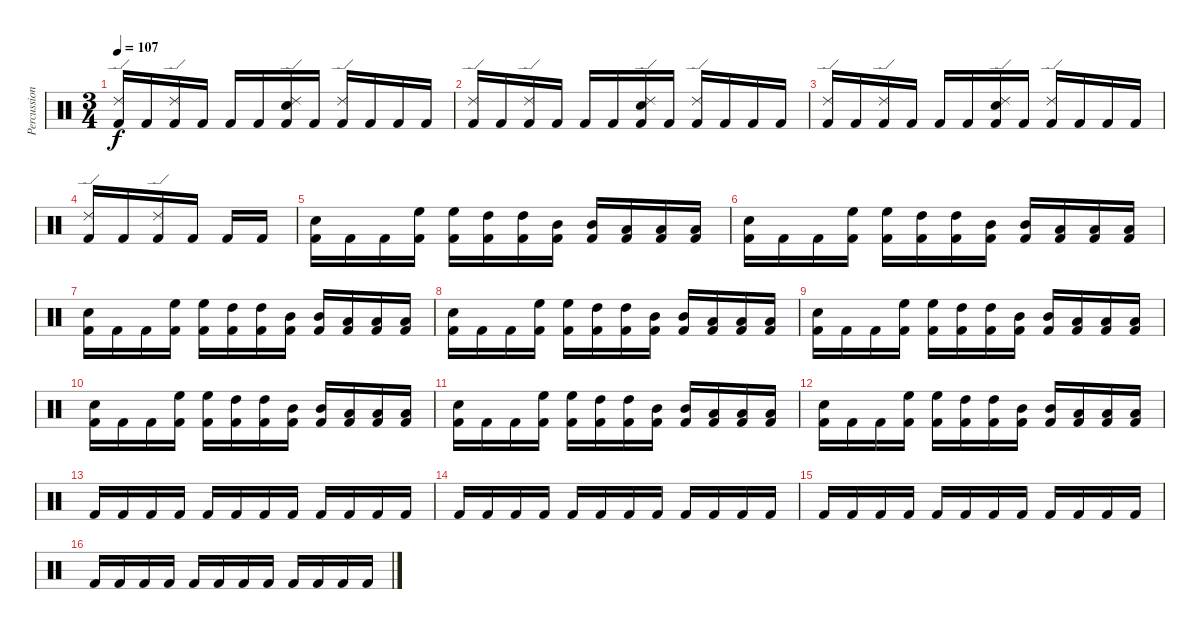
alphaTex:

\track ("Percussion" "Percussion") {instrument percussion}
\staff {score}
\articulation defaults
\ts (3 4)
\tempo 107
\clef neutral
\ks c
("Ride (edge) 2" "Kick (hit) 2").16{dy f} "Kick (hit) 2".16 ("Ride (edge) 2" "Kick (hit) 2").16 "Kick (hit) 2".16 "Kick (hit) 2".16 "Kick (hit) 2".16 ("Ride (edge) 2" "Electric Snare (hit)" "Kick (hit) 2").16 "Kick (hit) 2".16 ("Ride (edge) 2" "Kick (hit) 2").16 "Kick (hit) 2".16 "Kick (hit) 2".16 "Kick (hit) 2".16 |
("Ride (edge) 2" "Kick (hit) 2").16 "Kick (hit) 2".16 ("Ride (edge) 2" "Kick (hit) 2").16 "Kick (hit) 2".16 "Kick (hit) 2".16 "Kick (hit) 2".16 ("Ride (edge) 2" "Electric Snare (hit)" "Kick (hit) 2").16 "Kick (hit) 2".16 ("Ride (edge) 2" "Kick (hit) 2").16 "Kick (hit) 2".16 "Kick (hit) 2".16 "Kick (hit) 2".16 |
("Ride (edge) 2" "Kick (hit) 2").16 "Kick (hit) 2".16 ("Ride (edge) 2" "Kick (hit) 2").16 "Kick (hit) 2".16 "Kick (hit) 2".16 "Kick (hit) 2".16 ("Ride (edge) 2" "Electric Snare (hit)" "Kick (hit) 2").16 "Kick (hit) 2".16 ("Ride (edge) 2" "Kick (hit) 2").16 "Kick (hit) 2".16 "Kick (hit) 2".16 "Kick (hit) 2".16 |
("Ride (edge) 2" "Kick (hit) 2").16 "Kick (hit) 2".16 ("Ride (edge) 2" "Kick (hit) 2").16 "Kick (hit) 2".16 "Kick (hit) 2".16 "Kick (hit) 2".16 |
("Electric Snare (hit)" "Kick (hit) 2").16 "Kick (hit) 2".16 "Kick (hit) 2".16 ("High Floor Tom (hit)" "Kick (hit) 2").16 ("High Floor Tom (hit)" "Kick (hit) 2").16 ("High Tom (hit)" "Kick (hit) 2").16 ("High Tom (hit)" "Kick (hit) 2").16 ("Mid Tom (hit)" "Kick (hit) 2").16 ("Mid Tom (hit)" "Kick (hit) 2").16 ("Low Tom (hit)" "Kick (hit) 2").16 ("Low Tom (hit)" "Kick (hit) 2").16 ("Low Floor Tom (hit)" "Kick (hit) 2").16 |
("Electric Snare (hit)" "Kick (hit) 2").16 "Kick (hit) 2".16 "Kick (hit) 2".16 ("High Floor Tom (hit)" "Kick (hit) 2").16 ("High Floor Tom (hit)" "Kick (hit) 2").16 ("High Tom (hit)" "Kick (hit) 2").16 ("High Tom (hit)" "Kick (hit) 2").16 ("Mid Tom (hit)" "Kick (hit) 2").16 ("Mid Tom (hit)" "Kick (hit) 2").16 ("Low Tom (hit)" "Kick (hit) 2").16 ("Low Tom (hit)" "Kick (hit) 2").16 ("Low Floor Tom (hit)" "Kick (hit) 2").16 |
("Electric Snare (hit)" "Kick (hit) 2").16 "Kick (hit) 2".16 "Kick (hit) 2".16 ("High Floor Tom (hit)" "Kick (hit) 2").16 ("High Floor Tom (hit)" "Kick (hit) 2").16 ("High Tom (hit)" "Kick (hit) 2").16 ("High Tom (hit)" "Kick (hit) 2").16 ("Mid Tom (hit)" "Kick (hit) 2").16 ("Mid Tom (hit)" "Kick (hit) 2").16 ("Low Tom (hit)" "Kick (hit) 2").16 ("Low Tom (hit)" "Kick (hit) 2").16 ("Low Floor Tom (hit)" "Kick (hit) 2").16 |
("Electric Snare (hit)" "Kick (hit) 2").16 "Kick (hit) 2".16 "Kick (hit) 2".16 ("High Floor Tom (hit)" "Kick (hit) 2").16 ("High Floor Tom (hit)" "Kick (hit) 2").16 ("High Tom (hit)" "Kick (hit) 2").16 ("High Tom (hit)" "Kick (hit) 2").16 ("Mid Tom (hit)" "Kick (hit) 2").16 ("Mid Tom (hit)" "Kick (hit) 2").16 ("Low Tom (hit)" "Kick (hit) 2").16 ("Low Tom (hit)" "Kick (hit) 2").16 ("Low Floor Tom (hit)" "Kick (hit) 2").16 |
("Electric Snare (hit)" "Kick (hit) 2").16 "Kick (hit) 2".16 "Kick (hit) 2".16 ("High Floor Tom (hit)" "Kick (hit) 2").16 ("High Floor Tom (hit)" "Kick (hit) 2").16 ("High Tom (hit)" "Kick (hit) 2").16 ("High Tom (hit)" "Kick (hit) 2").16 ("Mid Tom (hit)" "Kick (hit) 2").16 ("Mid Tom (hit)" "Kick (hit) 2").16 ("Low Tom (hit)" "Kick (hit) 2").16 ("Low Tom (hit)" "Kick (hit) 2").16 ("Low Floor Tom (hit)" "Kick (hit) 2").16 |
("Electric Snare (hit)" "Kick (hit) 2").16 "Kick (hit) 2".16 "Kick (hit) 2".16 ("High Floor Tom (hit)" "Kick (hit) 2").16 ("High Floor Tom (hit)" "Kick (hit) 2").16 ("High Tom (hit)" "Kick (hit) 2").16 ("High Tom (hit)" "Kick (hit) 2").16 ("Mid Tom (hit)" "Kick (hit) 2").16 ("Mid Tom (hit)" "Kick (hit) 2").16 ("Low Tom (hit)" "Kick (hit) 2").16 ("Low Tom (hit)" "Kick (hit) 2").16 ("Low Floor Tom (hit)" "Kick (hit) 2").16 |
("Electric Snare (hit)" "Kick (hit) 2").16 "Kick (hit) 2".16 "Kick (hit) 2".16 ("High Floor Tom (hit)" "Kick (hit) 2").16 ("High Floor Tom (hit)" "Kick (hit) 2").16 ("High Tom (hit)" "Kick (hit) 2").16 ("High Tom (hit)" "Kick (hit) 2").16 ("Mid Tom (hit)" "Kick (hit) 2").16 ("Mid Tom (hit)" "Kick (hit) 2").16 ("Low Tom (hit)" "Kick (hit) 2").16 ("Low Tom (hit)" "Kick (hit) 2").16 ("Low Floor Tom (hit)" "Kick (hit) 2").16 |
("Electric Snare (hit)" "Kick (hit) 2").16 "Kick (hit) 2".16 "Kick (hit) 2".16 ("High Floor Tom (hit)" "Kick (hit) 2").16 ("High Floor Tom (hit)" "Kick (hit) 2").16 ("High Tom (hit)" "Kick (hit) 2").16 ("High Tom (hit)" "Kick (hit) 2").16 ("Mid Tom (hit)" "Kick (hit) 2").16 ("Mid Tom (hit)" "Kick (hit) 2").16 ("Low Tom (hit)" "Kick (hit) 2").16 ("Low Tom (hit)" "Kick (hit) 2").16 ("Low Floor Tom (hit)" "Kick (hit) 2").16 |
"Kick (hit) 2".16 "Kick (hit) 2".16 "Kick (hit) 2".16 "Kick (hit) 2".16 "Kick (hit) 2".16 "Kick (hit) 2".16 "Kick (hit) 2".16 "Kick (hit) 2".16 "Kick (hit) 2".16 "Kick (hit) 2".16 "Kick (hit) 2".16 "Kick (hit) 2".16 |
"Kick (hit) 2".16 "Kick (hit) 2".16 "Kick (hit) 2".16 "Kick (hit) 2".16 "Kick (hit) 2".16 "Kick (hit) 2".16 "Kick (hit) 2".16 "Kick (hit) 2".16 "Kick (hit) 2".16 "Kick (hit) 2".16 "Kick (hit) 2".16 "Kick (hit) 2".16 |
"Kick (hit) 2".16 "Kick (hit) 2".16 "Kick (hit) 2".16 "Kick (hit) 2".16 "Kick (hit) 2".16 "Kick (hit) 2".16 "Kick (hit) 2".16 "Kick (hit) 2".16 "Kick (hit) 2".16 "Kick (hit) 2".16 "Kick (hit) 2".16 "Kick (hit) 2".16 |
"Kick (hit) 2".16 "Kick (hit) 2".16 "Kick (hit) 2".16 "Kick (hit) 2".16 "Kick (hit) 2".16 "Kick (hit) 2".16 "Kick (hit) 2".16 "Kick (hit) 2".16 "Kick (hit) 2".16 "Kick (hit) 2".16 "Kick (hit) 2".16 "Kick (hit) 2".16
